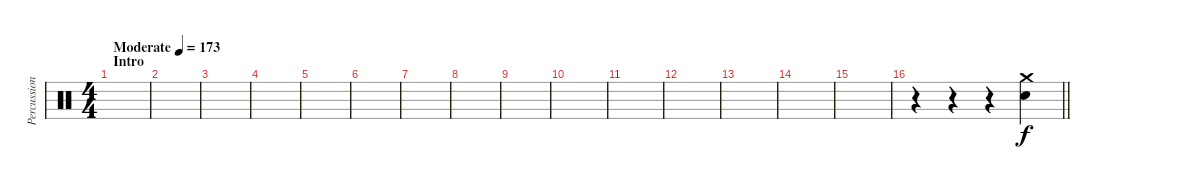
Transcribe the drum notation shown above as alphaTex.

\track ("Percussion" "Percussion") {instrument percussion}
\staff {score}
\articulation defaults
\ts (4 4)
\section ("" "Intro")
\tempo (173 "Moderate")
\clef neutral
\ks c
|
|
|
|
|
|
|
|
|
|
|
|
|
|
|
\barLineRight lightlight
r.4 r.4 r.4 ("Crash medium (hit)" "Electric Snare (hit)").4
